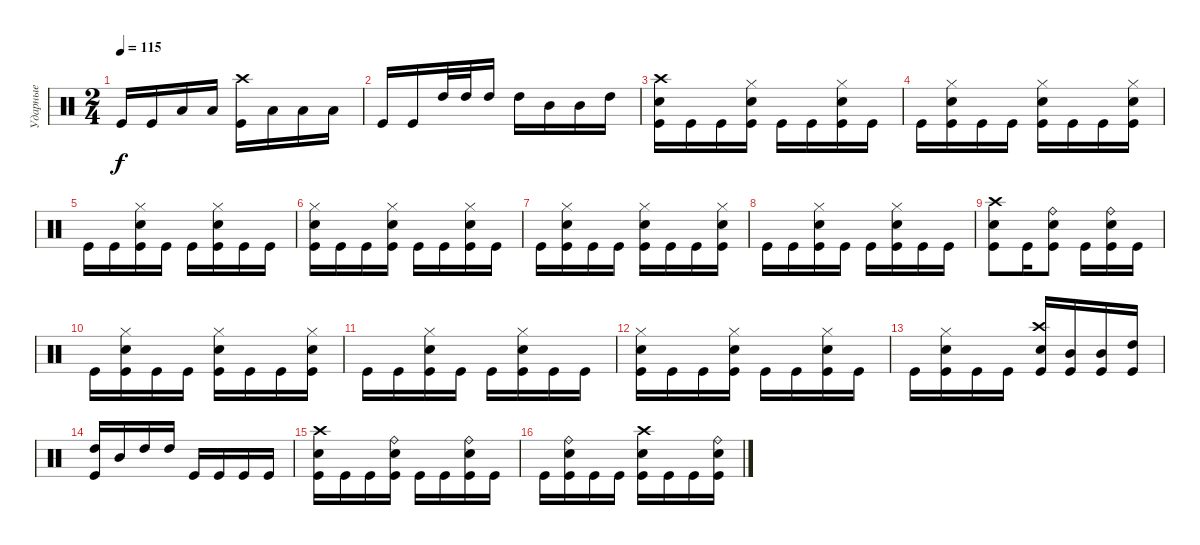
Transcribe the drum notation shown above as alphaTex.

\track ("Ударные" "Ударные") {instrument percussion}
\staff {score}
\articulation defaults
\ts (2 4)
\tempo 115
\clef neutral
\ks c "Kick (hit)".16{dy f} "Kick (hit)".16 "Low Tom (hit)".16 "Low Tom (hit)".16
("Crash high (hit)" "Kick (hit)").16 "Low Tom (hit)".16 "Low Tom (hit)".16 "Low Tom (hit)".16 |
"Kick (hit)".16 "Kick (hit)".16 "High Tom (hit)".32 "High Tom (hit)".32 "High Tom (hit)".16 "High Tom (hit)".16 "Mid Tom (hit)".16 "Mid Tom (hit)".16 "High Tom (hit)".16 |
("Crash high (hit)" "Electric Snare (hit)" "Kick (hit)").16 "Kick (hit)".16 "Kick (hit)".16 ("Hi-Hat (closed)" "Electric Snare (hit)" "Kick (hit)").16 "Kick (hit)".16 "Kick (hit)".16 ("Hi-Hat (closed)" "Electric Snare (hit)" "Kick (hit)").16 "Kick (hit)".16 |
"Kick (hit)".16 ("Hi-Hat (closed)" "Electric Snare (hit)" "Kick (hit)").16 "Kick (hit)".16 "Kick (hit)".16 ("Hi-Hat (closed)" "Electric Snare (hit)" "Kick (hit)").16 "Kick (hit)".16 "Kick (hit)".16 ("Hi-Hat (closed)" "Electric Snare (hit)" "Kick (hit)").16 |
"Kick (hit)".16 "Kick (hit)".16 ("Hi-Hat (closed)" "Electric Snare (hit)" "Kick (hit)").16 "Kick (hit)".16 "Kick (hit)".16 ("Hi-Hat (closed)" "Electric Snare (hit)" "Kick (hit)").16 "Kick (hit)".16 "Kick (hit)".16 |
("Hi-Hat (closed)" "Electric Snare (hit)" "Kick (hit)").16 "Kick (hit)".16 "Kick (hit)".16 ("Hi-Hat (closed)" "Electric Snare (hit)" "Kick (hit)").16 "Kick (hit)".16 "Kick (hit)".16 ("Hi-Hat (closed)" "Electric Snare (hit)" "Kick (hit)").16 "Kick (hit)".16 |
"Kick (hit)".16 ("Hi-Hat (closed)" "Electric Snare (hit)" "Kick (hit)").16 "Kick (hit)".16 "Kick (hit)".16 ("Hi-Hat (closed)" "Electric Snare (hit)" "Kick (hit)").16 "Kick (hit)".16 "Kick (hit)".16 ("Hi-Hat (closed)" "Electric Snare (hit)" "Kick (hit)").16 |
"Kick (hit)".16 "Kick (hit)".16 ("Hi-Hat (closed)" "Electric Snare (hit)" "Kick (hit)").16 "Kick (hit)".16 "Kick (hit)".16 ("Hi-Hat (closed)" "Electric Snare (hit)" "Kick (hit)").16 "Kick (hit)".16 "Kick (hit)".16 |
("Crash high (hit)" "Electric Snare (hit)" "Kick (hit)").8 "Kick (hit)".16 ("Ride (bell)" "Electric Snare (hit)" "Kick (hit)").8 "Kick (hit)".16 ("Ride (bell)" "Electric Snare (hit)" "Kick (hit)").16 "Kick (hit)".16 |
"Kick (hit)".16 ("Hi-Hat (closed)" "Electric Snare (hit)" "Kick (hit)").16 "Kick (hit)".16 "Kick (hit)".16 ("Hi-Hat (closed)" "Electric Snare (hit)" "Kick (hit)").16 "Kick (hit)".16 "Kick (hit)".16 ("Hi-Hat (closed)" "Electric Snare (hit)" "Kick (hit)").16 |
"Kick (hit)".16 "Kick (hit)".16 ("Hi-Hat (closed)" "Electric Snare (hit)" "Kick (hit)").16 "Kick (hit)".16 "Kick (hit)".16 ("Hi-Hat (closed)" "Electric Snare (hit)" "Kick (hit)").16 "Kick (hit)".16 "Kick (hit)".16 |
("Hi-Hat (closed)" "Electric Snare (hit)" "Kick (hit)").16 "Kick (hit)".16 "Kick (hit)".16 ("Hi-Hat (closed)" "Electric Snare (hit)" "Kick (hit)").16 "Kick (hit)".16 "Kick (hit)".16 ("Hi-Hat (closed)" "Electric Snare (hit)" "Kick (hit)").16 "Kick (hit)".16 |
"Kick (hit)".16 ("Hi-Hat (closed)" "Electric Snare (hit)" "Kick (hit)").16 "Kick (hit)".16 "Kick (hit)".16 ("Crash high (hit)" "Electric Snare (hit)" "Kick (hit)").16 ("Mid Tom (hit)" "Kick (hit)").16 ("Mid Tom (hit)" "Kick (hit)").16 ("High Tom (hit)" "Kick (hit)").16 |
("High Tom (hit)" "Kick (hit)").16 "Mid Tom (hit)".16 "High Tom (hit)".16 "High Tom (hit)".16 "Kick (hit)".16 "Kick (hit)".16 "Kick (hit)".16 "Kick (hit)".16 |
("Crash high (hit)" "Electric Snare (hit)" "Kick (hit)").16 "Kick (hit)".16 "Kick (hit)".16 ("Ride (bell)" "Electric Snare (hit)" "Kick (hit)").16 "Kick (hit)".16 "Kick (hit)".16 ("Ride (bell)" "Electric Snare (hit)" "Kick (hit)").16 "Kick (hit)".16 |
"Kick (hit)".16 ("Ride (bell)" "Electric Snare (hit)" "Kick (hit)").16 "Kick (hit)".16 "Kick (hit)".16 ("Crash high (hit)" "Electric Snare (hit)" "Kick (hit)").16 "Kick (hit)".16 "Kick (hit)".16 ("Ride (bell)" "Electric Snare (hit)" "Kick (hit)").16
